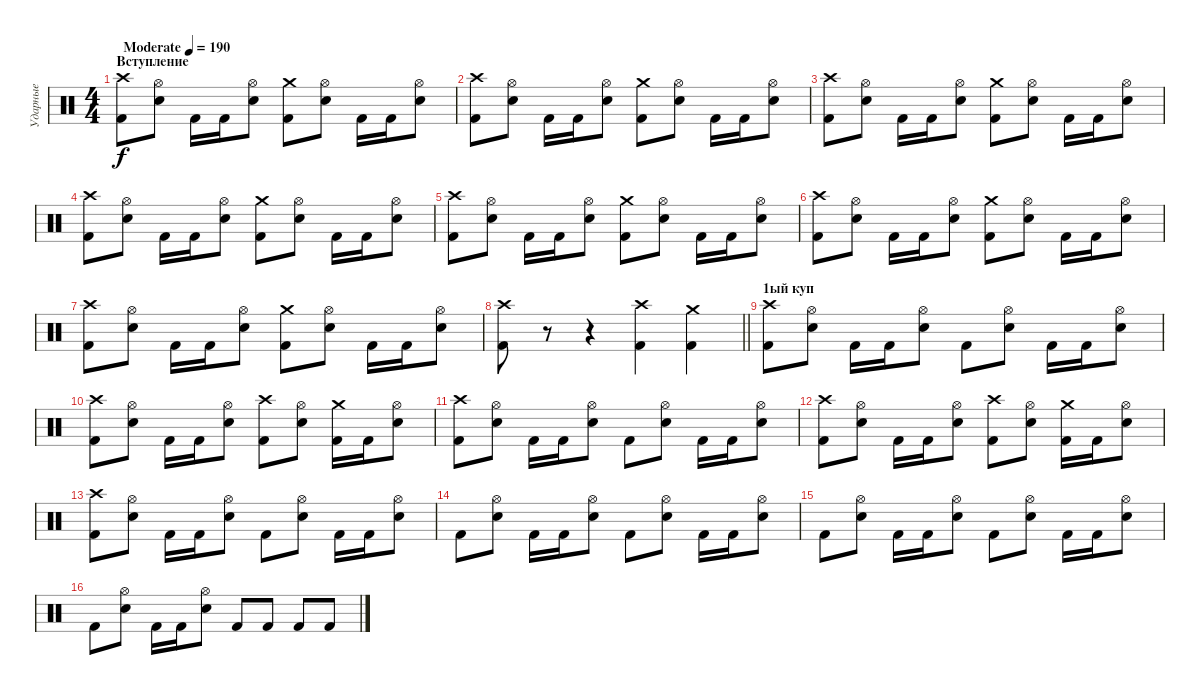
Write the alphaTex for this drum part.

\track ("Ударные" "Ударные") {instrument percussion}
\staff {score}
\articulation defaults
\ts (4 4)
\section ("" "Вступление")
\tempo (190 "Moderate")
\clef neutral
\ks c
("Crash high (hit)" "Kick (hit) 2").8{dy f} ("Hi-Hat (open)" "Electric Snare (hit)").8 "Kick (hit) 2".16 "Kick (hit) 2".16 ("Hi-Hat (open)" "Electric Snare (hit)").8 ("Crash medium (hit)" "Kick (hit) 2").8 ("Hi-Hat (open)" "Electric Snare (hit)").8 "Kick (hit) 2".16 "Kick (hit) 2".16 ("Hi-Hat (open)" "Electric Snare (hit)").8 |
("Crash high (hit)" "Kick (hit) 2").8 ("Hi-Hat (open)" "Electric Snare (hit)").8 "Kick (hit) 2".16 "Kick (hit) 2".16 ("Hi-Hat (open)" "Electric Snare (hit)").8 ("Crash medium (hit)" "Kick (hit) 2").8 ("Hi-Hat (open)" "Electric Snare (hit)").8 "Kick (hit) 2".16 "Kick (hit) 2".16 ("Hi-Hat (open)" "Electric Snare (hit)").8 |
("Crash high (hit)" "Kick (hit) 2").8 ("Hi-Hat (open)" "Electric Snare (hit)").8 "Kick (hit) 2".16 "Kick (hit) 2".16 ("Hi-Hat (open)" "Electric Snare (hit)").8 ("Crash medium (hit)" "Kick (hit) 2").8 ("Hi-Hat (open)" "Electric Snare (hit)").8 "Kick (hit) 2".16 "Kick (hit) 2".16 ("Hi-Hat (open)" "Electric Snare (hit)").8 |
("Crash high (hit)" "Kick (hit) 2").8 ("Hi-Hat (open)" "Electric Snare (hit)").8 "Kick (hit) 2".16 "Kick (hit) 2".16 ("Hi-Hat (open)" "Electric Snare (hit)").8 ("Crash medium (hit)" "Kick (hit) 2").8 ("Hi-Hat (open)" "Electric Snare (hit)").8 "Kick (hit) 2".16 "Kick (hit) 2".16 ("Hi-Hat (open)" "Electric Snare (hit)").8 |
("Crash high (hit)" "Kick (hit) 2").8 ("Hi-Hat (open)" "Electric Snare (hit)").8 "Kick (hit) 2".16 "Kick (hit) 2".16 ("Hi-Hat (open)" "Electric Snare (hit)").8 ("Crash medium (hit)" "Kick (hit) 2").8 ("Hi-Hat (open)" "Electric Snare (hit)").8 "Kick (hit) 2".16 "Kick (hit) 2".16 ("Hi-Hat (open)" "Electric Snare (hit)").8 |
("Crash high (hit)" "Kick (hit) 2").8 ("Hi-Hat (open)" "Electric Snare (hit)").8 "Kick (hit) 2".16 "Kick (hit) 2".16 ("Hi-Hat (open)" "Electric Snare (hit)").8 ("Crash medium (hit)" "Kick (hit) 2").8 ("Hi-Hat (open)" "Electric Snare (hit)").8 "Kick (hit) 2".16 "Kick (hit) 2".16 ("Hi-Hat (open)" "Electric Snare (hit)").8 |
("Crash high (hit)" "Kick (hit) 2").8 ("Hi-Hat (open)" "Electric Snare (hit)").8 "Kick (hit) 2".16 "Kick (hit) 2".16 ("Hi-Hat (open)" "Electric Snare (hit)").8 ("Crash medium (hit)" "Kick (hit) 2").8 ("Hi-Hat (open)" "Electric Snare (hit)").8 "Kick (hit) 2".16 "Kick (hit) 2".16 ("Hi-Hat (open)" "Electric Snare (hit)").8 |
\barLineRight lightlight
("Crash high (hit)" "Kick (hit) 2").8 r.8 r.4 ("Crash high (hit)" "Kick (hit) 2").4 ("Crash medium (hit)" "Kick (hit) 2").4 |
\section ("" "1ый куп")
("Crash high (hit)" "Kick (hit) 2").8 ("Hi-Hat (open)" "Electric Snare (hit)").8 "Kick (hit) 2".16 "Kick (hit) 2".16 ("Hi-Hat (open)" "Electric Snare (hit)").8 "Kick (hit) 2".8 ("Hi-Hat (open)" "Electric Snare (hit)").8 "Kick (hit) 2".16 "Kick (hit) 2".16 ("Hi-Hat (open)" "Electric Snare (hit)").8 |
("Crash high (hit)" "Kick (hit) 2").8 ("Hi-Hat (open)" "Electric Snare (hit)").8 "Kick (hit) 2".16 "Kick (hit) 2".16 ("Hi-Hat (open)" "Electric Snare (hit)").8 ("Crash high (hit)" "Kick (hit) 2").8 ("Hi-Hat (open)" "Electric Snare (hit)").8 ("Crash medium (hit)" "Kick (hit) 2").16 "Kick (hit) 2".16 ("Hi-Hat (open)" "Electric Snare (hit)").8 |
("Crash high (hit)" "Kick (hit) 2").8 ("Hi-Hat (open)" "Electric Snare (hit)").8 "Kick (hit) 2".16 "Kick (hit) 2".16 ("Hi-Hat (open)" "Electric Snare (hit)").8 "Kick (hit) 2".8 ("Hi-Hat (open)" "Electric Snare (hit)").8 "Kick (hit) 2".16 "Kick (hit) 2".16 ("Hi-Hat (open)" "Electric Snare (hit)").8 |
("Crash high (hit)" "Kick (hit) 2").8 ("Hi-Hat (open)" "Electric Snare (hit)").8 "Kick (hit) 2".16 "Kick (hit) 2".16 ("Hi-Hat (open)" "Electric Snare (hit)").8 ("Crash high (hit)" "Kick (hit) 2").8 ("Hi-Hat (open)" "Electric Snare (hit)").8 ("Crash medium (hit)" "Kick (hit) 2").16 "Kick (hit) 2".16 ("Hi-Hat (open)" "Electric Snare (hit)").8 |
("Crash high (hit)" "Kick (hit) 2").8 ("Hi-Hat (open)" "Electric Snare (hit)").8 "Kick (hit) 2".16 "Kick (hit) 2".16 ("Hi-Hat (open)" "Electric Snare (hit)").8 "Kick (hit) 2".8 ("Hi-Hat (open)" "Electric Snare (hit)").8 "Kick (hit) 2".16 "Kick (hit) 2".16 ("Hi-Hat (open)" "Electric Snare (hit)").8 |
"Kick (hit) 2".8 ("Hi-Hat (open)" "Electric Snare (hit)").8 "Kick (hit) 2".16 "Kick (hit) 2".16 ("Hi-Hat (open)" "Electric Snare (hit)").8 "Kick (hit) 2".8 ("Hi-Hat (open)" "Electric Snare (hit)").8 "Kick (hit) 2".16 "Kick (hit) 2".16 ("Hi-Hat (open)" "Electric Snare (hit)").8 |
"Kick (hit) 2".8 ("Hi-Hat (open)" "Electric Snare (hit)").8 "Kick (hit) 2".16 "Kick (hit) 2".16 ("Hi-Hat (open)" "Electric Snare (hit)").8 "Kick (hit) 2".8 ("Hi-Hat (open)" "Electric Snare (hit)").8 "Kick (hit) 2".16 "Kick (hit) 2".16 ("Hi-Hat (open)" "Electric Snare (hit)").8 |
"Kick (hit) 2".8 ("Hi-Hat (open)" "Electric Snare (hit)").8 "Kick (hit) 2".16 "Kick (hit) 2".16 ("Hi-Hat (open)" "Electric Snare (hit)").8 "Kick (hit) 2".8 "Kick (hit) 2".8 "Kick (hit) 2".8 "Kick (hit) 2".8
